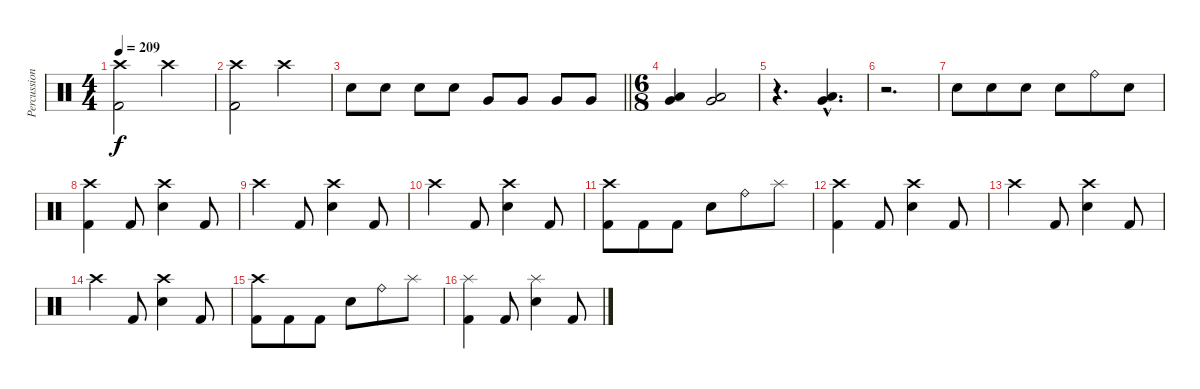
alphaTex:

\track ("Percussion" "Percussion") {instrument percussion}
\staff {score}
\articulation defaults
\ts (4 4)
\tempo 209
\clef neutral
\ks c
("Crash high (hit)" "Kick (hit) 2").2{dy f} "Crash high (hit)".2 |
("Crash high (hit)" "Kick (hit) 2").2 "Crash high (hit)".2 |
\barLineRight lightlight "Electric Snare (hit)".8 "Electric Snare (hit)".8 "Electric Snare (hit)".8 "Electric Snare (hit)".8 "Very Low Tom (hit)".8 "Very Low Tom (hit)".8 "Very Low Tom (hit)".8 "Very Low Tom (hit)".8
|
\ts (6 8)
\section ("" "")
("Very Low Tom (hit)" "Low Floor Tom (hit)").4 ("Very Low Tom (hit)" "Low Floor Tom (hit)").2 |
r.4{d} ("Very Low Tom (hit)"{hac} "Low Floor Tom (hit)"{hac}).4{d} |
r.2{d} |
"Electric Snare (hit)".8 "Electric Snare (hit)".8 "Electric Snare (hit)".8 "Electric Snare (hit)".8 "Ride (bell)".8 "Electric Snare (hit)".8 |
("Crash high (hit)" "Kick (hit) 2").4 "Kick (hit) 2".8 ("Crash high (hit)" "Electric Snare (hit)").4 "Kick (hit) 2".8 |
"Crash high (hit)".4 "Kick (hit) 2".8 ("Crash high (hit)" "Electric Snare (hit)").4 "Kick (hit) 2".8 |
"Crash high (hit)".4 "Kick (hit) 2".8 ("Crash high (hit)" "Electric Snare (hit)").4 "Kick (hit) 2".8 |
("Crash high (hit)" "Kick (hit) 2").8 "Kick (hit) 2".8 "Kick (hit) 2".8 "Electric Snare (hit)".8 "Ride (bell)".8 "Splash (hit)".8 |
("Crash high (hit)" "Kick (hit) 2").4 "Kick (hit) 2".8 ("Crash high (hit)" "Electric Snare (hit)").4 "Kick (hit) 2".8 |
"Crash high (hit)".4 "Kick (hit) 2".8 ("Crash high (hit)" "Electric Snare (hit)").4 "Kick (hit) 2".8 |
"Crash high (hit)".4 "Kick (hit) 2".8 ("Crash high (hit)" "Electric Snare (hit)").4 "Kick (hit) 2".8 |
("Crash high (hit)" "Kick (hit) 2").8 "Kick (hit) 2".8 "Kick (hit) 2".8 "Electric Snare (hit)".8 "Ride (bell)".8 "Splash (hit)".8 |
("Splash (hit)" "Kick (hit) 2").4 "Kick (hit) 2".8 ("Splash (hit)" "Electric Snare (hit)").4 "Kick (hit) 2".8
